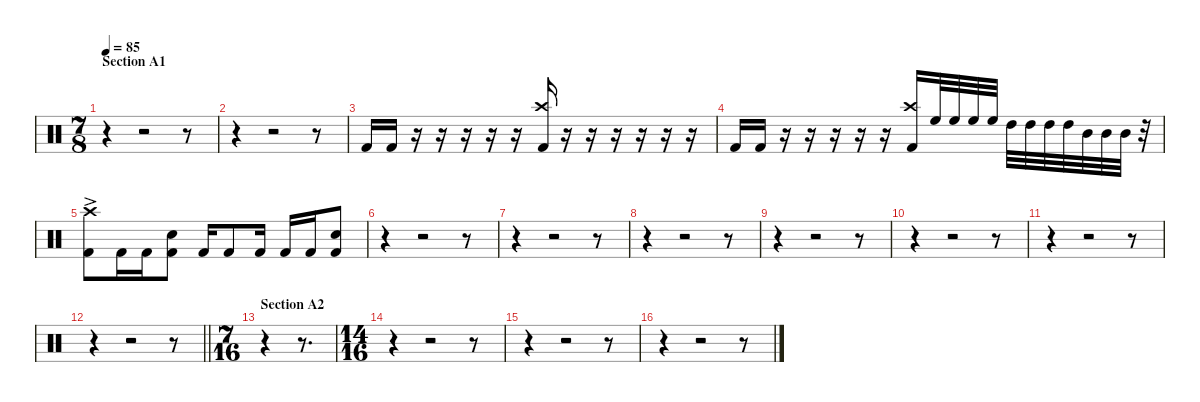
\defaultSystemsLayout 4
\hideDynamics
\bracketExtendMode nobrackets
\singleTrackTrackNamePolicy hidden
\multiTrackTrackNamePolicy hidden
\firstSystemTrackNameMode fullname
\firstSystemTrackNameOrientation horizontal
\otherSystemsTrackNameOrientation horizontal
\track ("Drums" "drm.") {instrument percussion}
\staff {score}
\articulation defaults
\ts (7 8)
\beaming (8 3 2 2)
\section ("" "Section A1")
\tempo 85
\clef neutral
\ks c
r.4{dy f beam Down} r.2{beam Down} r.8{beam Down} |
r.4{beam Down} r.2{beam Down} r.8{beam Down} |
"Kick (hit) 2".16{beam Up} "Kick (hit) 2".16{beam Up} r.16{beam Up} r.16{beam Up} r.16{beam Up} r.16{beam Up} r.16{beam Up} ("Crash high (hit)" "Kick (hit) 2").16{beam Down} r.16{beam Down} r.16{beam Down} r.16{beam Down} r.16{beam Down} r.16{beam Down} r.16{beam Down} |
"Kick (hit) 2".16{beam Up} "Kick (hit) 2".16{beam Up} r.16{beam Up} r.16{beam Up} r.16{beam Up} r.16{beam Up} r.16{beam Up} ("Crash high (hit)" "Kick (hit) 2").16{beam Down} "High Floor Tom (hit)".32{beam Down} "High Floor Tom (hit)".32{beam Down} "High Floor Tom (hit)".32{beam Down} "High Floor Tom (hit)".32{beam Down} "High Tom (hit)".32{beam Down} "High Tom (hit)".32{beam Down} "High Tom (hit)".32{beam Down} "High Tom (hit)".32{beam Down} "Mid Tom (hit)".32{beam Down} "Mid Tom (hit)".32{beam Down} "Mid Tom (hit)".32{beam Down} r.32{beam Down} |
("Crash high (hit)"{ac} "Kick (hit) 2").8{beam Down} "Kick (hit) 2".16{beam Down} "Kick (hit) 2".16{beam Down} ("Snare (hit) 2" "Kick (hit) 2").8{beam Down} "Kick (hit) 2".16{beam Up} "Kick (hit) 2".8{beam Up} "Kick (hit) 2".16{beam Up} "Kick (hit) 2".16{beam Up} "Kick (hit) 2".16{beam Up} ("Snare (hit) 2" "Kick (hit) 2").8{beam Up} |
r.4{beam Down} r.2{beam Down} r.8{beam Down} |
r.4{beam Down} r.2{beam Down} r.8{beam Down} |
r.4{beam Down} r.2{beam Down} r.8{beam Down} |
r.4{beam Down} r.2{beam Down} r.8{beam Down} |
r.4{beam Down} r.2{beam Down} r.8{beam Down} |
r.4{beam Down} r.2{beam Down} r.8{beam Down} |
\barLineRight lightlight
r.4{beam Down} r.2{beam Down} r.8{beam Down} |
\ts (7 16)
\beaming (8 3)
\section ("" "Section A2")
r.4{beam Down} r.8{d beam Down} |
\ts (14 16)
\beaming (8 7)
r.4{beam Down} r.2{beam Down} r.8{beam Down} |
r.4{beam Down} r.2{beam Down} r.8{beam Down} |
r.4{beam Down} r.2{beam Down} r.8{beam Down}
